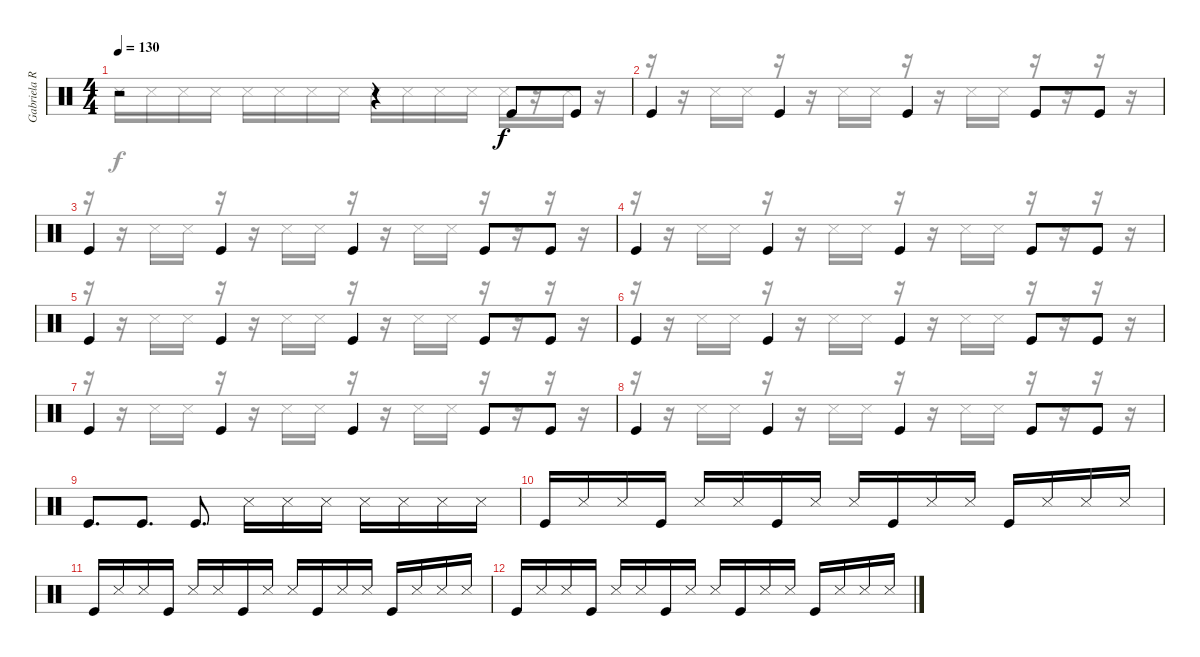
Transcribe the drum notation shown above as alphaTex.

\track ("Gabriela Rythmics" "Gabriela R") {instrument percussion}
\staff {score}
\articulation defaults
\voice
\ts (4 4)
\tempo 130
\clef neutral
\ks c
r.2{dy f} r.4 "Kick (hit)".8 "Kick (hit)".8 |
"Kick (hit)".4 "Kick (hit)".4 "Kick (hit)".4 "Kick (hit)".8 "Kick (hit)".8 |
"Kick (hit)".4 "Kick (hit)".4 "Kick (hit)".4 "Kick (hit)".8 "Kick (hit)".8 |
"Kick (hit)".4 "Kick (hit)".4 "Kick (hit)".4 "Kick (hit)".8 "Kick (hit)".8 |
"Kick (hit)".4 "Kick (hit)".4 "Kick (hit)".4 "Kick (hit)".8 "Kick (hit)".8 |
"Kick (hit)".4 "Kick (hit)".4 "Kick (hit)".4 "Kick (hit)".8 "Kick (hit)".8 |
"Kick (hit)".4 "Kick (hit)".4 "Kick (hit)".4 "Kick (hit)".8 "Kick (hit)".8 |
"Kick (hit)".4 "Kick (hit)".4 "Kick (hit)".4 "Kick (hit)".8 "Kick (hit)".8 |
"Kick (hit)".8{d} "Kick (hit)".8{d} "Kick (hit)".8{d} "Snare (side stick) 3".16 "Snare (side stick) 3".16 "Snare (side stick) 3".16 "Snare (side stick) 3".16 "Snare (side stick) 3".16 "Snare (side stick) 3".16 "Snare (side stick) 3".16 |
"Kick (hit)".16 "Snare (side stick) 3".16 "Snare (side stick) 3".16 "Kick (hit)".16 "Snare (side stick) 3".16 "Snare (side stick) 3".16 "Kick (hit)".16 "Snare (side stick) 3".16 "Snare (side stick) 3".16 "Kick (hit)".16 "Snare (side stick) 3".16 "Snare (side stick) 3".16 "Kick (hit)".16 "Snare (side stick) 3".16 "Snare (side stick) 3".16 "Snare (side stick) 3".16 |
"Kick (hit)".16 "Snare (side stick) 3".16 "Snare (side stick) 3".16 "Kick (hit)".16 "Snare (side stick) 3".16 "Snare (side stick) 3".16 "Kick (hit)".16 "Snare (side stick) 3".16 "Snare (side stick) 3".16 "Kick (hit)".16 "Snare (side stick) 3".16 "Snare (side stick) 3".16 "Kick (hit)".16 "Snare (side stick) 3".16 "Snare (side stick) 3".16 "Snare (side stick) 3".16 |
"Kick (hit)".16 "Snare (side stick) 3".16 "Snare (side stick) 3".16 "Kick (hit)".16 "Snare (side stick) 3".16 "Snare (side stick) 3".16 "Kick (hit)".16 "Snare (side stick) 3".16 "Snare (side stick) 3".16 "Kick (hit)".16 "Snare (side stick) 3".16 "Snare (side stick) 3".16 "Kick (hit)".16 "Snare (side stick) 3".16 "Snare (side stick) 3".16 "Snare (side stick) 3".16 |
|
|
|
\voice
\clef neutral
\ottava regular
\simile none
\ks c "Snare (side stick) 3".16{dy f} "Snare (side stick) 3".16 "Snare (side stick) 3".16 "Snare (side stick) 3".16 "Snare (side stick) 3".16 "Snare (side stick) 3".16 "Snare (side stick) 3".16 "Snare (side stick) 3".16 "Snare (side stick) 3".16 "Snare (side stick) 3".16 "Snare (side stick) 3".16 "Snare (side stick) 3".16 "Snare (side stick) 3".16
r.16 "Snare (side stick) 3".16 r.16 |
r.16 r.16 "Snare (side stick) 3".16 "Snare (side stick) 3".16 r.16 r.16 "Snare (side stick) 3".16 "Snare (side stick) 3".16 r.16 r.16 "Snare (side stick) 3".16 "Snare (side stick) 3".16 r.16 r.16 r.16 r.16 |
r.16 r.16 "Snare (side stick) 3".16 "Snare (side stick) 3".16 r.16 r.16 "Snare (side stick) 3".16 "Snare (side stick) 3".16 r.16 r.16 "Snare (side stick) 3".16 "Snare (side stick) 3".16 r.16 r.16 r.16 r.16 |
r.16 r.16 "Snare (side stick) 3".16 "Snare (side stick) 3".16 r.16 r.16 "Snare (side stick) 3".16 "Snare (side stick) 3".16 r.16 r.16 "Snare (side stick) 3".16 "Snare (side stick) 3".16 r.16 r.16 r.16 r.16 |
r.16 r.16 "Snare (side stick) 3".16 "Snare (side stick) 3".16 r.16 r.16 "Snare (side stick) 3".16 "Snare (side stick) 3".16 r.16 r.16 "Snare (side stick) 3".16 "Snare (side stick) 3".16 r.16 r.16 r.16 r.16 |
r.16 r.16 "Snare (side stick) 3".16 "Snare (side stick) 3".16 r.16 r.16 "Snare (side stick) 3".16 "Snare (side stick) 3".16 r.16 r.16 "Snare (side stick) 3".16 "Snare (side stick) 3".16 r.16 r.16 r.16 r.16 |
r.16 r.16 "Snare (side stick) 3".16 "Snare (side stick) 3".16 r.16 r.16 "Snare (side stick) 3".16 "Snare (side stick) 3".16 r.16 r.16 "Snare (side stick) 3".16 "Snare (side stick) 3".16 r.16 r.16 r.16 r.16 |
r.16 r.16 "Snare (side stick) 3".16 "Snare (side stick) 3".16 r.16 r.16 "Snare (side stick) 3".16 "Snare (side stick) 3".16 r.16 r.16 "Snare (side stick) 3".16 "Snare (side stick) 3".16 r.16 r.16 r.16 r.16 |
|
|
|
|
|
|
|
